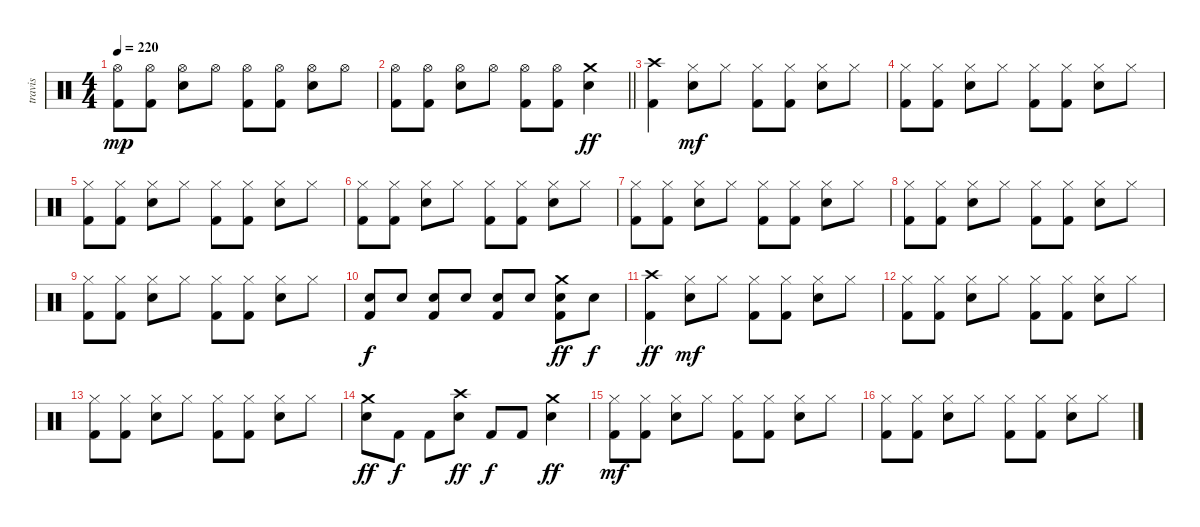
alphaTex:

\track ("travis" "travis") {instrument percussion}
\staff {score}
\articulation defaults
\ts (4 4)
\tempo 220
\clef neutral
\ks c
("Hi-Hat (open)" "Kick (hit) 2").8{dy mp} ("Hi-Hat (open)" "Kick (hit) 2").8 ("Hi-Hat (open)" "Electric Snare (hit)").8 "Hi-Hat (open)".8 ("Hi-Hat (open)" "Kick (hit) 2").8 ("Hi-Hat (open)" "Kick (hit) 2").8 ("Hi-Hat (open)" "Electric Snare (hit)").8 "Hi-Hat (open)".8 |
\barLineRight lightlight
("Hi-Hat (open)" "Kick (hit) 2").8 ("Hi-Hat (open)" "Kick (hit) 2").8 ("Hi-Hat (open)" "Electric Snare (hit)").8 "Hi-Hat (open)".8 ("Hi-Hat (open)" "Kick (hit) 2").8 ("Hi-Hat (open)" "Kick (hit) 2").8 ("Crash medium (hit)" "Electric Snare (hit)").4{dy ff} |
("Crash high (hit)" "Kick (hit) 2").4 ("Hi-Hat (closed)" "Electric Snare (hit)").8{dy mf} "Hi-Hat (closed)".8 ("Hi-Hat (closed)" "Kick (hit) 2").8 ("Hi-Hat (closed)" "Kick (hit) 2").8 ("Hi-Hat (closed)" "Electric Snare (hit)").8 "Hi-Hat (closed)".8 |
("Hi-Hat (closed)" "Kick (hit) 2").8 ("Hi-Hat (closed)" "Kick (hit) 2").8 ("Hi-Hat (closed)" "Electric Snare (hit)").8 "Hi-Hat (closed)".8 ("Hi-Hat (closed)" "Kick (hit) 2").8 ("Hi-Hat (closed)" "Kick (hit) 2").8 ("Hi-Hat (closed)" "Electric Snare (hit)").8 "Hi-Hat (closed)".8 |
("Hi-Hat (closed)" "Kick (hit) 2").8 ("Hi-Hat (closed)" "Kick (hit) 2").8 ("Hi-Hat (closed)" "Electric Snare (hit)").8 "Hi-Hat (closed)".8 ("Hi-Hat (closed)" "Kick (hit) 2").8 ("Hi-Hat (closed)" "Kick (hit) 2").8 ("Hi-Hat (closed)" "Electric Snare (hit)").8 "Hi-Hat (closed)".8 |
("Hi-Hat (closed)" "Kick (hit) 2").8 ("Hi-Hat (closed)" "Kick (hit) 2").8 ("Hi-Hat (closed)" "Electric Snare (hit)").8 "Hi-Hat (closed)".8 ("Hi-Hat (closed)" "Kick (hit) 2").8 ("Hi-Hat (closed)" "Kick (hit) 2").8 ("Hi-Hat (closed)" "Electric Snare (hit)").8 "Hi-Hat (closed)".8 |
("Hi-Hat (closed)" "Kick (hit) 2").8 ("Hi-Hat (closed)" "Kick (hit) 2").8 ("Hi-Hat (closed)" "Electric Snare (hit)").8 "Hi-Hat (closed)".8 ("Hi-Hat (closed)" "Kick (hit) 2").8 ("Hi-Hat (closed)" "Kick (hit) 2").8 ("Hi-Hat (closed)" "Electric Snare (hit)").8 "Hi-Hat (closed)".8 |
("Hi-Hat (closed)" "Kick (hit) 2").8 ("Hi-Hat (closed)" "Kick (hit) 2").8 ("Hi-Hat (closed)" "Electric Snare (hit)").8 "Hi-Hat (closed)".8 ("Hi-Hat (closed)" "Kick (hit) 2").8 ("Hi-Hat (closed)" "Kick (hit) 2").8 ("Hi-Hat (closed)" "Electric Snare (hit)").8 "Hi-Hat (closed)".8 |
("Hi-Hat (closed)" "Kick (hit) 2").8 ("Hi-Hat (closed)" "Kick (hit) 2").8 ("Hi-Hat (closed)" "Electric Snare (hit)").8 "Hi-Hat (closed)".8 ("Hi-Hat (closed)" "Kick (hit) 2").8 ("Hi-Hat (closed)" "Kick (hit) 2").8 ("Hi-Hat (closed)" "Electric Snare (hit)").8 "Hi-Hat (closed)".8 |
("Electric Snare (hit)" "Kick (hit) 2").8{dy f} "Electric Snare (hit)".8 ("Electric Snare (hit)" "Kick (hit) 2").8 "Electric Snare (hit)".8 ("Electric Snare (hit)" "Kick (hit) 2").8 "Electric Snare (hit)".8 ("Crash medium (hit)" "Electric Snare (hit)" "Kick (hit) 2").8{dy ff} "Electric Snare (hit)".8{dy f} |
("Crash high (hit)" "Kick (hit) 2").4{dy ff} ("Hi-Hat (closed)" "Electric Snare (hit)").8{dy mf} "Hi-Hat (closed)".8 ("Hi-Hat (closed)" "Kick (hit) 2").8 ("Hi-Hat (closed)" "Kick (hit) 2").8 ("Hi-Hat (closed)" "Electric Snare (hit)").8 "Hi-Hat (closed)".8 |
("Hi-Hat (closed)" "Kick (hit) 2").8 ("Hi-Hat (closed)" "Kick (hit) 2").8 ("Hi-Hat (closed)" "Electric Snare (hit)").8 "Hi-Hat (closed)".8 ("Hi-Hat (closed)" "Kick (hit) 2").8 ("Hi-Hat (closed)" "Kick (hit) 2").8 ("Hi-Hat (closed)" "Electric Snare (hit)").8 "Hi-Hat (closed)".8 |
("Hi-Hat (closed)" "Kick (hit) 2").8 ("Hi-Hat (closed)" "Kick (hit) 2").8 ("Hi-Hat (closed)" "Electric Snare (hit)").8 "Hi-Hat (closed)".8 ("Hi-Hat (closed)" "Kick (hit) 2").8 ("Hi-Hat (closed)" "Kick (hit) 2").8 ("Hi-Hat (closed)" "Electric Snare (hit)").8 "Hi-Hat (closed)".8 |
("Crash medium (hit)" "Electric Snare (hit)").8{dy ff} "Kick (hit) 2".8{dy f} "Kick (hit) 2".8 ("Crash high (hit)" "Electric Snare (hit)").8{dy ff} "Kick (hit) 2".8{dy f} "Kick (hit) 2".8 ("Crash medium (hit)" "Electric Snare (hit)").4{dy ff} |
("Hi-Hat (closed)" "Kick (hit) 2").8{dy mf} ("Hi-Hat (closed)" "Kick (hit) 2").8 ("Hi-Hat (closed)" "Electric Snare (hit)").8 "Hi-Hat (closed)".8 ("Hi-Hat (closed)" "Kick (hit) 2").8 ("Hi-Hat (closed)" "Kick (hit) 2").8 ("Hi-Hat (closed)" "Electric Snare (hit)").8 "Hi-Hat (closed)".8 |
("Hi-Hat (closed)" "Kick (hit) 2").8 ("Hi-Hat (closed)" "Kick (hit) 2").8 ("Hi-Hat (closed)" "Electric Snare (hit)").8 "Hi-Hat (closed)".8 ("Hi-Hat (closed)" "Kick (hit) 2").8 ("Hi-Hat (closed)" "Kick (hit) 2").8 ("Hi-Hat (closed)" "Electric Snare (hit)").8 "Hi-Hat (closed)".8
